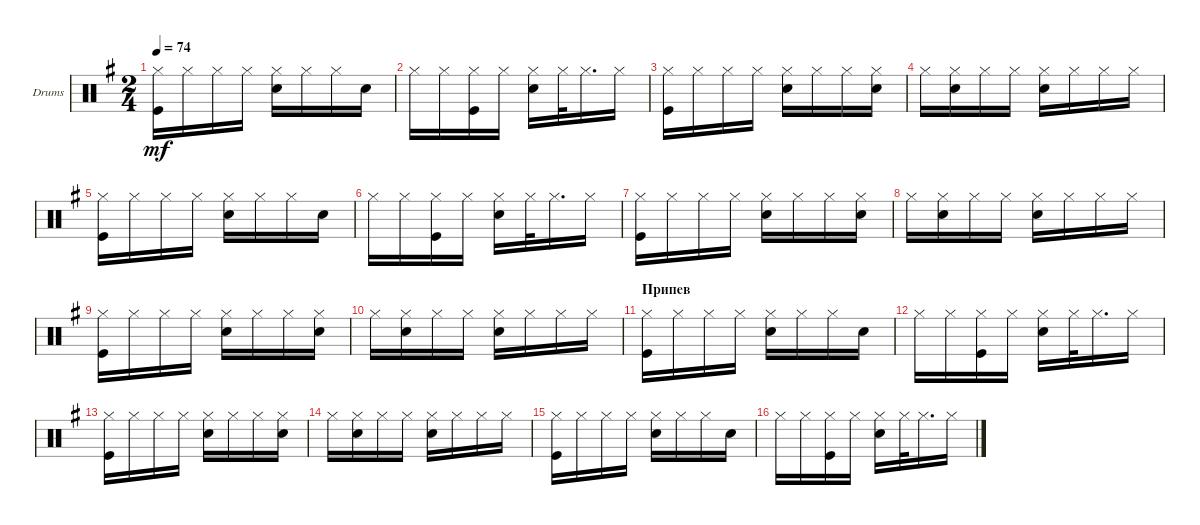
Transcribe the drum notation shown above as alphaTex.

\defaultSystemsLayout 4
\bracketExtendMode groupsimilarinstruments
\firstSystemTrackNameOrientation horizontal
\otherSystemsTrackNameOrientation horizontal
\track ("Drumkit" "Drums") {instrument percussion}
\staff {score}
\articulation defaults
\ts (2 4)
\tempo 74
\clef neutral
\ks eminor
("Hi-Hat (closed)" "Kick (hit)").16{dy mf} "Hi-Hat (closed)".16 "Hi-Hat (closed)".16 "Hi-Hat (closed)".16 ("Hi-Hat (closed)" "Snare (hit) 2").16 "Hi-Hat (closed)".16 "Hi-Hat (closed)".16 "Snare (hit) 2".16 |
"Hi-Hat (closed)".16 "Hi-Hat (closed)".16 ("Hi-Hat (closed)" "Kick (hit)").16 "Hi-Hat (closed)".16 ("Hi-Hat (closed)" "Snare (hit) 2").16 "Hi-Hat (closed)".32 "Hi-Hat (closed)".16{d} "Hi-Hat (closed)".16 |
("Hi-Hat (closed)" "Kick (hit)").16 "Hi-Hat (closed)".16 "Hi-Hat (closed)".16 "Hi-Hat (closed)".16 ("Hi-Hat (closed)" "Snare (hit) 2").16 "Hi-Hat (closed)".16 "Hi-Hat (closed)".16 ("Hi-Hat (closed)" "Snare (hit) 2").16 |
"Hi-Hat (closed)".16 ("Hi-Hat (closed)" "Snare (hit) 2").16 "Hi-Hat (closed)".16 "Hi-Hat (closed)".16 ("Hi-Hat (closed)" "Snare (hit) 2").16 "Hi-Hat (closed)".16 "Hi-Hat (closed)".16 "Hi-Hat (closed)".16 |
("Hi-Hat (closed)" "Kick (hit)").16 "Hi-Hat (closed)".16 "Hi-Hat (closed)".16 "Hi-Hat (closed)".16 ("Hi-Hat (closed)" "Snare (hit) 2").16 "Hi-Hat (closed)".16 "Hi-Hat (closed)".16 "Snare (hit) 2".16 |
"Hi-Hat (closed)".16 "Hi-Hat (closed)".16 ("Hi-Hat (closed)" "Kick (hit)").16 "Hi-Hat (closed)".16 ("Hi-Hat (closed)" "Snare (hit) 2").16 "Hi-Hat (closed)".32 "Hi-Hat (closed)".16{d} "Hi-Hat (closed)".16 |
("Hi-Hat (closed)" "Kick (hit)").16 "Hi-Hat (closed)".16 "Hi-Hat (closed)".16 "Hi-Hat (closed)".16 ("Hi-Hat (closed)" "Snare (hit) 2").16 "Hi-Hat (closed)".16 "Hi-Hat (closed)".16 ("Hi-Hat (closed)" "Snare (hit) 2").16 |
"Hi-Hat (closed)".16 ("Hi-Hat (closed)" "Snare (hit) 2").16 "Hi-Hat (closed)".16 "Hi-Hat (closed)".16 ("Hi-Hat (closed)" "Snare (hit) 2").16 "Hi-Hat (closed)".16 "Hi-Hat (closed)".16 "Hi-Hat (closed)".16 |
("Hi-Hat (closed)" "Kick (hit)").16 "Hi-Hat (closed)".16 "Hi-Hat (closed)".16 "Hi-Hat (closed)".16 ("Hi-Hat (closed)" "Snare (hit) 2").16 "Hi-Hat (closed)".16 "Hi-Hat (closed)".16 ("Hi-Hat (closed)" "Snare (hit) 2").16 |
"Hi-Hat (closed)".16 ("Hi-Hat (closed)" "Snare (hit) 2").16 "Hi-Hat (closed)".16 "Hi-Hat (closed)".16 ("Hi-Hat (closed)" "Snare (hit) 2").16 "Hi-Hat (closed)".16 "Hi-Hat (closed)".16 "Hi-Hat (closed)".16 |
\section ("" "Припев")
("Hi-Hat (closed)" "Kick (hit)").16 "Hi-Hat (closed)".16 "Hi-Hat (closed)".16 "Hi-Hat (closed)".16 ("Hi-Hat (closed)" "Snare (hit) 2").16 "Hi-Hat (closed)".16 "Hi-Hat (closed)".16 "Snare (hit) 2".16 |
"Hi-Hat (closed)".16 "Hi-Hat (closed)".16 ("Hi-Hat (closed)" "Kick (hit)").16 "Hi-Hat (closed)".16 ("Hi-Hat (closed)" "Snare (hit) 2").16 "Hi-Hat (closed)".32 "Hi-Hat (closed)".16{d} "Hi-Hat (closed)".16 |
("Hi-Hat (closed)" "Kick (hit)").16 "Hi-Hat (closed)".16 "Hi-Hat (closed)".16 "Hi-Hat (closed)".16 ("Hi-Hat (closed)" "Snare (hit) 2").16 "Hi-Hat (closed)".16 "Hi-Hat (closed)".16 ("Hi-Hat (closed)" "Snare (hit) 2").16 |
"Hi-Hat (closed)".16 ("Hi-Hat (closed)" "Snare (hit) 2").16 "Hi-Hat (closed)".16 "Hi-Hat (closed)".16 ("Hi-Hat (closed)" "Snare (hit) 2").16 "Hi-Hat (closed)".16 "Hi-Hat (closed)".16 "Hi-Hat (closed)".16 |
("Hi-Hat (closed)" "Kick (hit)").16 "Hi-Hat (closed)".16 "Hi-Hat (closed)".16 "Hi-Hat (closed)".16 ("Hi-Hat (closed)" "Snare (hit) 2").16 "Hi-Hat (closed)".16 "Hi-Hat (closed)".16 "Snare (hit) 2".16 |
"Hi-Hat (closed)".16 "Hi-Hat (closed)".16 ("Hi-Hat (closed)" "Kick (hit)").16 "Hi-Hat (closed)".16 ("Hi-Hat (closed)" "Snare (hit) 2").16 "Hi-Hat (closed)".32 "Hi-Hat (closed)".16{d} "Hi-Hat (closed)".16
